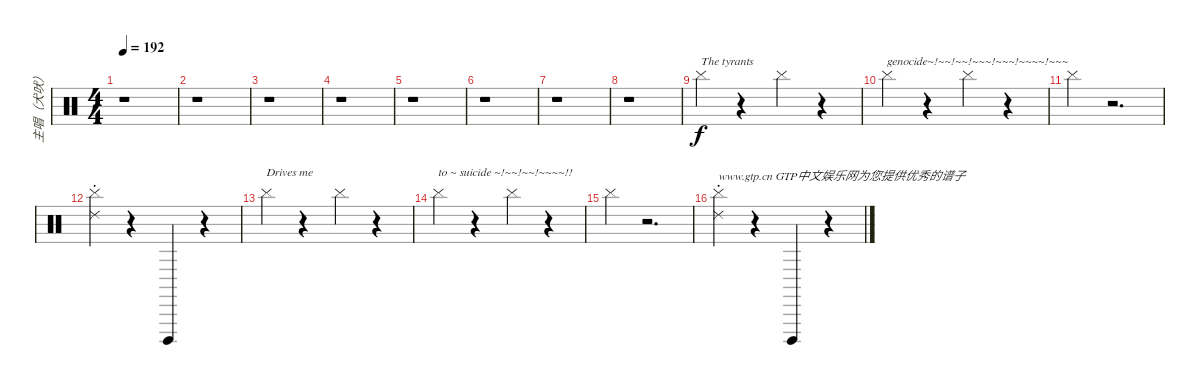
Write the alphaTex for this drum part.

\track ("主唱（犬吠）" "主唱（犬吠）") {instrument percussion}
\staff {score}
\articulation defaults
\ts (4 4)
\tempo 192
\clef neutral
\ks c
r.1{dy fff} |
r.1 |
r.1 |
r.1 |
r.1 |
r.1 |
r.1 |
r.1 |
"Cymbal (hit)".4{txt "The tyrants" dy f} r.4 "Cymbal (hit)".4 r.4 |
"Cymbal (hit)".4{txt "genocide~!~~!~~!~~~!~~~!~~~~!~~~"} r.4 "Cymbal (hit)".4 r.4 |
"Cymbal (hit)".4 r.2{d} |
("Ride (choke) 2" "Cymbal (hit)").4 r.4 "Cuica (open)".4 r.4 |
"Cymbal (hit)".4{txt "Drives me"} r.4 "Cymbal (hit)".4 r.4 |
"Cymbal (hit)".4{txt "to ~ suicide ~!~~!~~!~~~~!!"} r.4 "Cymbal (hit)".4 r.4 |
"Cymbal (hit)".4 r.2{d} |
("Ride (choke) 2" "Cymbal (hit)").4{txt "www.gtp.cn GTP中文娱乐网为您提供优秀的谱子"} r.4 "Cuica (open)".4 r.4
